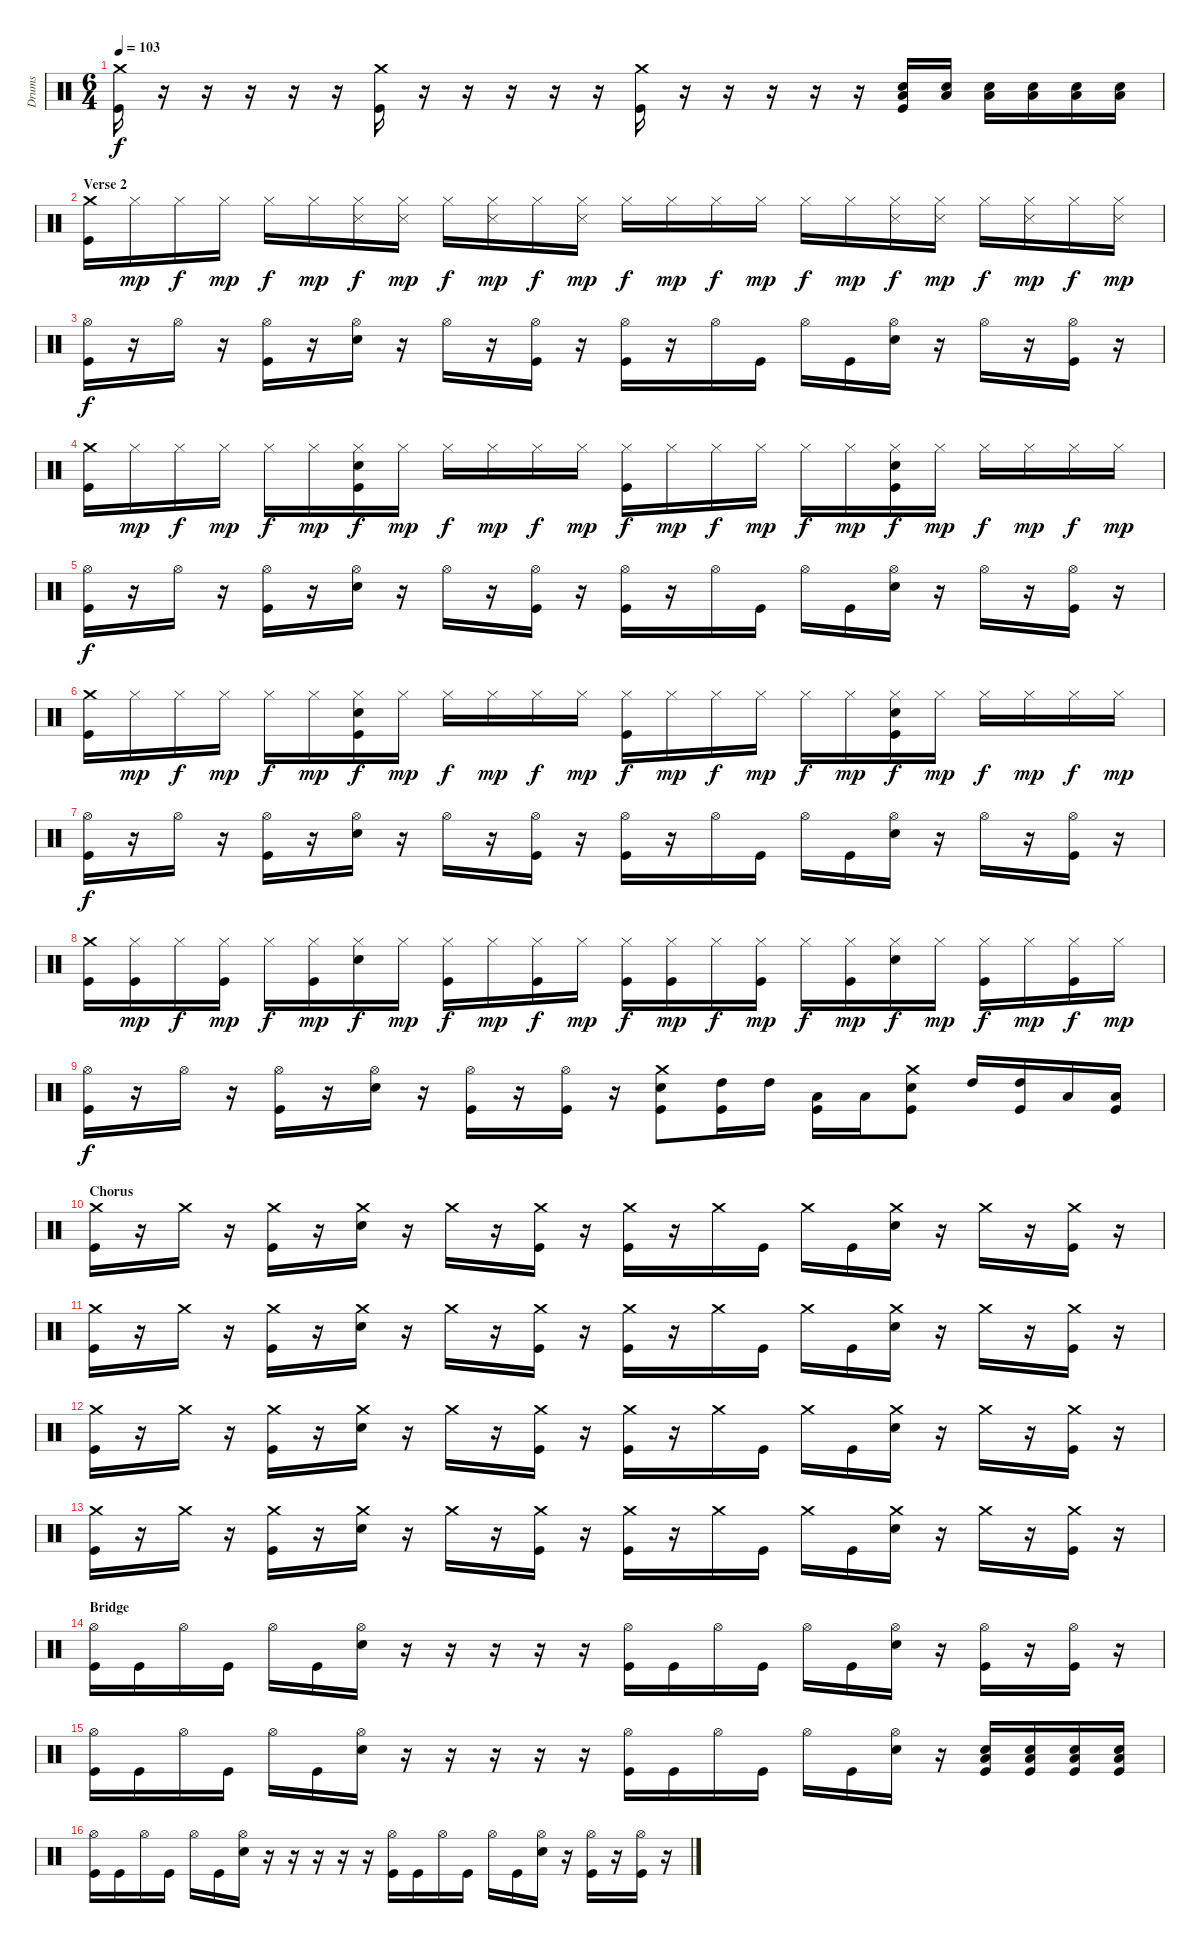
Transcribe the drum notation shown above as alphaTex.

\track ("Drums" "Drums") {instrument percussion}
\staff {score}
\articulation defaults
\ts (6 4)
\tempo 103
\clef neutral
\ks c
("Crash medium (hit)" "Kick (hit)").16{dy f} r.16 r.16 r.16 r.16 r.16 ("Crash medium (hit)" "Kick (hit)").16 r.16 r.16 r.16 r.16 r.16 ("Crash medium (hit)" "Kick (hit)").16 r.16 r.16 r.16 r.16 r.16 ("Low Tom (hit)" "Electric Snare (hit)" "Kick (hit)").16 ("Low Tom (hit)" "Electric Snare (hit)").16 ("Low Tom (hit)" "Electric Snare (hit)").16 ("Low Tom (hit)" "Electric Snare (hit)").16 ("Low Tom (hit)" "Electric Snare (hit)").16 ("Low Tom (hit)" "Electric Snare (hit)").16 |
\section ("" "Verse 2")
("Crash medium (hit)" "Kick (hit)").16 "Hi-Hat (closed)".16{dy mp} "Hi-Hat (closed)".16{dy f} "Hi-Hat (closed)".16{dy mp} "Hi-Hat (closed)".16{dy f} "Hi-Hat (closed)".16{dy mp} ("Hi-Hat (closed)" "Snare (side stick) 3").16{dy f} ("Hi-Hat (closed)" "Snare (side stick) 3").16{dy mp} "Hi-Hat (closed)".16{dy f} ("Hi-Hat (closed)" "Snare (side stick) 3").16{dy mp} "Hi-Hat (closed)".16{dy f} ("Hi-Hat (closed)" "Snare (side stick) 3").16{dy mp} "Hi-Hat (closed)".16{dy f} "Hi-Hat (closed)".16{dy mp} "Hi-Hat (closed)".16{dy f} "Hi-Hat (closed)".16{dy mp} "Hi-Hat (closed)".16{dy f} "Hi-Hat (closed)".16{dy mp} ("Hi-Hat (closed)" "Snare (side stick) 3").16{dy f} ("Hi-Hat (closed)" "Snare (side stick) 3").16{dy mp} "Hi-Hat (closed)".16{dy f} ("Hi-Hat (closed)" "Snare (side stick) 3").16{dy mp} "Hi-Hat (closed)".16{dy f} ("Hi-Hat (closed)" "Snare (side stick) 3").16{dy mp} |
("Hi-Hat (open)" "Kick (hit)").16{dy f} r.16 "Hi-Hat (open)".16 r.16 ("Hi-Hat (open)" "Kick (hit)").16 r.16 ("Hi-Hat (open)" "Electric Snare (hit)").16 r.16 "Hi-Hat (open)".16 r.16 ("Hi-Hat (open)" "Kick (hit)").16 r.16 ("Hi-Hat (open)" "Kick (hit)").16 r.16 "Hi-Hat (open)".16 "Kick (hit)".16 "Hi-Hat (open)".16 "Kick (hit)".16 ("Hi-Hat (open)" "Electric Snare (hit)").16 r.16 "Hi-Hat (open)".16 r.16 ("Hi-Hat (open)" "Kick (hit)").16 r.16 |
("Crash medium (hit)" "Kick (hit)").16 "Hi-Hat (closed)".16{dy mp} "Hi-Hat (closed)".16{dy f} "Hi-Hat (closed)".16{dy mp} "Hi-Hat (closed)".16{dy f} "Hi-Hat (closed)".16{dy mp} ("Hi-Hat (closed)" "Electric Snare (hit)" "Kick (hit)").16{dy f} "Hi-Hat (closed)".16{dy mp} "Hi-Hat (closed)".16{dy f} "Hi-Hat (closed)".16{dy mp} "Hi-Hat (closed)".16{dy f} "Hi-Hat (closed)".16{dy mp} ("Hi-Hat (closed)" "Kick (hit)").16{dy f} "Hi-Hat (closed)".16{dy mp} "Hi-Hat (closed)".16{dy f} "Hi-Hat (closed)".16{dy mp} "Hi-Hat (closed)".16{dy f} "Hi-Hat (closed)".16{dy mp} ("Hi-Hat (closed)" "Electric Snare (hit)" "Kick (hit)").16{dy f} "Hi-Hat (closed)".16{dy mp} "Hi-Hat (closed)".16{dy f} "Hi-Hat (closed)".16{dy mp} "Hi-Hat (closed)".16{dy f} "Hi-Hat (closed)".16{dy mp} |
("Hi-Hat (open)" "Kick (hit)").16{dy f} r.16 "Hi-Hat (open)".16 r.16 ("Hi-Hat (open)" "Kick (hit)").16 r.16 ("Hi-Hat (open)" "Electric Snare (hit)").16 r.16 "Hi-Hat (open)".16 r.16 ("Hi-Hat (open)" "Kick (hit)").16 r.16 ("Hi-Hat (open)" "Kick (hit)").16 r.16 "Hi-Hat (open)".16 "Kick (hit)".16 "Hi-Hat (open)".16 "Kick (hit)".16 ("Hi-Hat (open)" "Electric Snare (hit)").16 r.16 "Hi-Hat (open)".16 r.16 ("Hi-Hat (open)" "Kick (hit)").16 r.16 |
("Crash medium (hit)" "Kick (hit)").16 "Hi-Hat (closed)".16{dy mp} "Hi-Hat (closed)".16{dy f} "Hi-Hat (closed)".16{dy mp} "Hi-Hat (closed)".16{dy f} "Hi-Hat (closed)".16{dy mp} ("Hi-Hat (closed)" "Electric Snare (hit)" "Kick (hit)").16{dy f} "Hi-Hat (closed)".16{dy mp} "Hi-Hat (closed)".16{dy f} "Hi-Hat (closed)".16{dy mp} "Hi-Hat (closed)".16{dy f} "Hi-Hat (closed)".16{dy mp} ("Hi-Hat (closed)" "Kick (hit)").16{dy f} "Hi-Hat (closed)".16{dy mp} "Hi-Hat (closed)".16{dy f} "Hi-Hat (closed)".16{dy mp} "Hi-Hat (closed)".16{dy f} "Hi-Hat (closed)".16{dy mp} ("Hi-Hat (closed)" "Electric Snare (hit)" "Kick (hit)").16{dy f} "Hi-Hat (closed)".16{dy mp} "Hi-Hat (closed)".16{dy f} "Hi-Hat (closed)".16{dy mp} "Hi-Hat (closed)".16{dy f} "Hi-Hat (closed)".16{dy mp} |
("Hi-Hat (open)" "Kick (hit)").16{dy f} r.16 "Hi-Hat (open)".16 r.16 ("Hi-Hat (open)" "Kick (hit)").16 r.16 ("Hi-Hat (open)" "Electric Snare (hit)").16 r.16 "Hi-Hat (open)".16 r.16 ("Hi-Hat (open)" "Kick (hit)").16 r.16 ("Hi-Hat (open)" "Kick (hit)").16 r.16 "Hi-Hat (open)".16 "Kick (hit)".16 "Hi-Hat (open)".16 "Kick (hit)".16 ("Hi-Hat (open)" "Electric Snare (hit)").16 r.16 "Hi-Hat (open)".16 r.16 ("Hi-Hat (open)" "Kick (hit)").16 r.16 |
("Crash medium (hit)" "Kick (hit)").16 ("Hi-Hat (closed)" "Kick (hit)").16{dy mp} "Hi-Hat (closed)".16{dy f} ("Hi-Hat (closed)" "Kick (hit)").16{dy mp} "Hi-Hat (closed)".16{dy f} ("Hi-Hat (closed)" "Kick (hit)").16{dy mp} ("Hi-Hat (closed)" "Electric Snare (hit)").16{dy f} "Hi-Hat (closed)".16{dy mp} ("Hi-Hat (closed)" "Kick (hit)").16{dy f} "Hi-Hat (closed)".16{dy mp} ("Hi-Hat (closed)" "Kick (hit)").16{dy f} "Hi-Hat (closed)".16{dy mp} ("Hi-Hat (closed)" "Kick (hit)").16{dy f} ("Hi-Hat (closed)" "Kick (hit)").16{dy mp} "Hi-Hat (closed)".16{dy f} ("Hi-Hat (closed)" "Kick (hit)").16{dy mp} "Hi-Hat (closed)".16{dy f} ("Hi-Hat (closed)" "Kick (hit)").16{dy mp} ("Hi-Hat (closed)" "Electric Snare (hit)").16{dy f} "Hi-Hat (closed)".16{dy mp} ("Hi-Hat (closed)" "Kick (hit)").16{dy f} "Hi-Hat (closed)".16{dy mp} ("Hi-Hat (closed)" "Kick (hit)").16{dy f} "Hi-Hat (closed)".16{dy mp} |
("Hi-Hat (open)" "Kick (hit)").16{dy f} r.16 "Hi-Hat (open)".16 r.16 ("Hi-Hat (open)" "Kick (hit)").16 r.16 ("Hi-Hat (open)" "Electric Snare (hit)").16 r.16 ("Hi-Hat (open)" "Kick (hit)").16 r.16 ("Hi-Hat (open)" "Kick (hit)").16 r.16 ("Crash medium (hit)" "Electric Snare (hit)" "Kick (hit)").8 ("High Tom (hit)" "Kick (hit)").16 "High Tom (hit)".16 ("Low Tom (hit)" "Kick (hit)").16 "Low Tom (hit)".16 ("Crash medium (hit)" "Electric Snare (hit)" "Kick (hit)").8 "High Tom (hit)".16 ("High Tom (hit)" "Kick (hit)").16 "Low Tom (hit)".16 ("Low Tom (hit)" "Kick (hit)").16 |
\section ("" "Chorus")
("Crash medium (hit)" "Kick (hit)").16 r.16 "Crash medium (hit)".16 r.16 ("Crash medium (hit)" "Kick (hit)").16 r.16 ("Crash medium (hit)" "Electric Snare (hit)").16 r.16 "Crash medium (hit)".16 r.16 ("Crash medium (hit)" "Kick (hit)").16 r.16 ("Crash medium (hit)" "Kick (hit)").16 r.16 "Crash medium (hit)".16 "Kick (hit)".16 "Crash medium (hit)".16 "Kick (hit)".16 ("Crash medium (hit)" "Electric Snare (hit)").16 r.16 "Crash medium (hit)".16 r.16 ("Crash medium (hit)" "Kick (hit)").16 r.16 |
("Crash medium (hit)" "Kick (hit)").16 r.16 "Crash medium (hit)".16 r.16 ("Crash medium (hit)" "Kick (hit)").16 r.16 ("Crash medium (hit)" "Electric Snare (hit)").16 r.16 "Crash medium (hit)".16 r.16 ("Crash medium (hit)" "Kick (hit)").16 r.16 ("Crash medium (hit)" "Kick (hit)").16 r.16 "Crash medium (hit)".16 "Kick (hit)".16 "Crash medium (hit)".16 "Kick (hit)".16 ("Crash medium (hit)" "Electric Snare (hit)").16 r.16 "Crash medium (hit)".16 r.16 ("Crash medium (hit)" "Kick (hit)").16 r.16 |
("Crash medium (hit)" "Kick (hit)").16 r.16 "Crash medium (hit)".16 r.16 ("Crash medium (hit)" "Kick (hit)").16 r.16 ("Crash medium (hit)" "Electric Snare (hit)").16 r.16 "Crash medium (hit)".16 r.16 ("Crash medium (hit)" "Kick (hit)").16 r.16 ("Crash medium (hit)" "Kick (hit)").16 r.16 "Crash medium (hit)".16 "Kick (hit)".16 "Crash medium (hit)".16 "Kick (hit)".16 ("Crash medium (hit)" "Electric Snare (hit)").16 r.16 "Crash medium (hit)".16 r.16 ("Crash medium (hit)" "Kick (hit)").16 r.16 |
("Crash medium (hit)" "Kick (hit)").16 r.16 "Crash medium (hit)".16 r.16 ("Crash medium (hit)" "Kick (hit)").16 r.16 ("Crash medium (hit)" "Electric Snare (hit)").16 r.16 "Crash medium (hit)".16 r.16 ("Crash medium (hit)" "Kick (hit)").16 r.16 ("Crash medium (hit)" "Kick (hit)").16 r.16 "Crash medium (hit)".16 "Kick (hit)".16 "Crash medium (hit)".16 "Kick (hit)".16 ("Crash medium (hit)" "Electric Snare (hit)").16 r.16 "Crash medium (hit)".16 r.16 ("Crash medium (hit)" "Kick (hit)").16 r.16 |
\section ("" "Bridge")
("Hi-Hat (open)" "Kick (hit)").16 "Kick (hit)".16 "Hi-Hat (open)".16 "Kick (hit)".16 "Hi-Hat (open)".16 "Kick (hit)".16 ("Hi-Hat (open)" "Electric Snare (hit)").16 r.16 r.16 r.16 r.16 r.16 ("Hi-Hat (open)" "Kick (hit)").16 "Kick (hit)".16 "Hi-Hat (open)".16 "Kick (hit)".16 "Hi-Hat (open)".16 "Kick (hit)".16 ("Hi-Hat (open)" "Electric Snare (hit)").16 r.16 ("Hi-Hat (open)" "Kick (hit)").16 r.16 ("Hi-Hat (open)" "Kick (hit)").16 r.16 |
("Hi-Hat (open)" "Kick (hit)").16 "Kick (hit)".16 "Hi-Hat (open)".16 "Kick (hit)".16 "Hi-Hat (open)".16 "Kick (hit)".16 ("Hi-Hat (open)" "Electric Snare (hit)").16 r.16 r.16 r.16 r.16 r.16 ("Hi-Hat (open)" "Kick (hit)").16 "Kick (hit)".16 "Hi-Hat (open)".16 "Kick (hit)".16 "Hi-Hat (open)".16 "Kick (hit)".16 ("Hi-Hat (open)" "Electric Snare (hit)").16 r.16 ("Low Tom (hit)" "Electric Snare (hit)" "Kick (hit)").16 ("Low Tom (hit)" "Electric Snare (hit)" "Kick (hit)").16 ("Low Tom (hit)" "Electric Snare (hit)" "Kick (hit)").16 ("Low Tom (hit)" "Electric Snare (hit)" "Kick (hit)").16 |
("Hi-Hat (open)" "Kick (hit)").16 "Kick (hit)".16 "Hi-Hat (open)".16 "Kick (hit)".16 "Hi-Hat (open)".16 "Kick (hit)".16 ("Hi-Hat (open)" "Electric Snare (hit)").16 r.16 r.16 r.16 r.16 r.16 ("Hi-Hat (open)" "Kick (hit)").16 "Kick (hit)".16 "Hi-Hat (open)".16 "Kick (hit)".16 "Hi-Hat (open)".16 "Kick (hit)".16 ("Hi-Hat (open)" "Electric Snare (hit)").16 r.16 ("Hi-Hat (open)" "Kick (hit)").16 r.16 ("Hi-Hat (open)" "Kick (hit)").16 r.16
